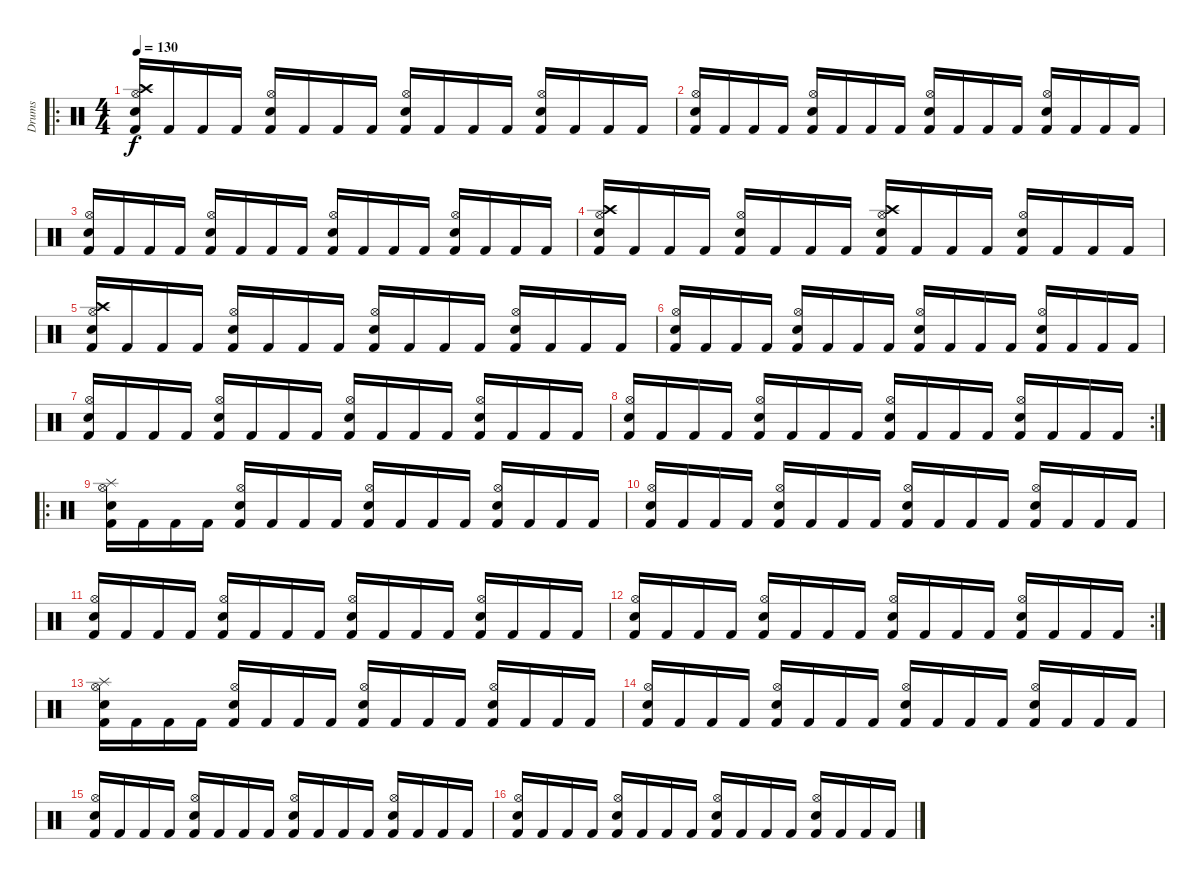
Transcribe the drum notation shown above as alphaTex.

\track ("Drums" "Drums") {instrument percussion}
\staff {score}
\articulation defaults
\ro
\ts (4 4)
\tempo 130
\clef neutral
\ks c
("Snare (hit) 2" "Crash high (hit)" "Hi-Hat (open)" "Kick (hit) 2").16{dy f} "Kick (hit) 2".16 "Kick (hit) 2".16 "Kick (hit) 2".16 ("Hi-Hat (open)" "Snare (hit) 2" "Kick (hit) 2").16 "Kick (hit) 2".16 "Kick (hit) 2".16 "Kick (hit) 2".16 ("Snare (hit) 2" "Hi-Hat (open)" "Kick (hit) 2").16 "Kick (hit) 2".16 "Kick (hit) 2".16 "Kick (hit) 2".16 ("Hi-Hat (open)" "Snare (hit) 2" "Kick (hit) 2").16 "Kick (hit) 2".16 "Kick (hit) 2".16 "Kick (hit) 2".16 |
("Snare (hit) 2" "Hi-Hat (open)" "Kick (hit) 2").16 "Kick (hit) 2".16 "Kick (hit) 2".16 "Kick (hit) 2".16 ("Hi-Hat (open)" "Snare (hit) 2" "Kick (hit) 2").16 "Kick (hit) 2".16 "Kick (hit) 2".16 "Kick (hit) 2".16 ("Snare (hit) 2" "Hi-Hat (open)" "Kick (hit) 2").16 "Kick (hit) 2".16 "Kick (hit) 2".16 "Kick (hit) 2".16 ("Hi-Hat (open)" "Snare (hit) 2" "Kick (hit) 2").16 "Kick (hit) 2".16 "Kick (hit) 2".16 "Kick (hit) 2".16 |
("Kick (hit) 2" "Hi-Hat (open)" "Snare (hit) 2").16 "Kick (hit) 2".16 "Kick (hit) 2".16 "Kick (hit) 2".16 ("Hi-Hat (open)" "Snare (hit) 2" "Kick (hit) 2").16 "Kick (hit) 2".16 "Kick (hit) 2".16 "Kick (hit) 2".16 ("Kick (hit) 2" "Hi-Hat (open)" "Snare (hit) 2").16 "Kick (hit) 2".16 "Kick (hit) 2".16 "Kick (hit) 2".16 ("Hi-Hat (open)" "Snare (hit) 2" "Kick (hit) 2").16 "Kick (hit) 2".16 "Kick (hit) 2".16 "Kick (hit) 2".16 |
("Crash high (hit)" "Kick (hit) 2" "Hi-Hat (open)" "Snare (hit) 2").16 "Kick (hit) 2".16 "Kick (hit) 2".16 "Kick (hit) 2".16 ("Hi-Hat (open)" "Snare (hit) 2" "Kick (hit) 2").16 "Kick (hit) 2".16 "Kick (hit) 2".16 "Kick (hit) 2".16 ("Crash high (hit)" "Kick (hit) 2" "Hi-Hat (open)" "Snare (hit) 2").16 "Kick (hit) 2".16 "Kick (hit) 2".16 "Kick (hit) 2".16 ("Hi-Hat (open)" "Snare (hit) 2" "Kick (hit) 2").16 "Kick (hit) 2".16 "Kick (hit) 2".16 "Kick (hit) 2".16 |
("Crash high (hit)" "Kick (hit) 2" "Hi-Hat (open)" "Snare (hit) 2").16 "Kick (hit) 2".16 "Kick (hit) 2".16 "Kick (hit) 2".16 ("Hi-Hat (open)" "Snare (hit) 2" "Kick (hit) 2").16 "Kick (hit) 2".16 "Kick (hit) 2".16 "Kick (hit) 2".16 ("Kick (hit) 2" "Hi-Hat (open)" "Snare (hit) 2").16 "Kick (hit) 2".16 "Kick (hit) 2".16 "Kick (hit) 2".16 ("Hi-Hat (open)" "Snare (hit) 2" "Kick (hit) 2").16 "Kick (hit) 2".16 "Kick (hit) 2".16 "Kick (hit) 2".16 |
("Kick (hit) 2" "Hi-Hat (open)" "Snare (hit) 2").16 "Kick (hit) 2".16 "Kick (hit) 2".16 "Kick (hit) 2".16 ("Hi-Hat (open)" "Snare (hit) 2" "Kick (hit) 2").16 "Kick (hit) 2".16 "Kick (hit) 2".16 "Kick (hit) 2".16 ("Kick (hit) 2" "Hi-Hat (open)" "Snare (hit) 2").16 "Kick (hit) 2".16 "Kick (hit) 2".16 "Kick (hit) 2".16 ("Hi-Hat (open)" "Snare (hit) 2" "Kick (hit) 2").16 "Kick (hit) 2".16 "Kick (hit) 2".16 "Kick (hit) 2".16 |
("Kick (hit) 2" "Hi-Hat (open)" "Snare (hit) 2").16 "Kick (hit) 2".16 "Kick (hit) 2".16 "Kick (hit) 2".16 ("Hi-Hat (open)" "Snare (hit) 2" "Kick (hit) 2").16 "Kick (hit) 2".16 "Kick (hit) 2".16 "Kick (hit) 2".16 ("Kick (hit) 2" "Hi-Hat (open)" "Snare (hit) 2").16 "Kick (hit) 2".16 "Kick (hit) 2".16 "Kick (hit) 2".16 ("Hi-Hat (open)" "Snare (hit) 2" "Kick (hit) 2").16 "Kick (hit) 2".16 "Kick (hit) 2".16 "Kick (hit) 2".16 |
\rc 2
("Kick (hit) 2" "Hi-Hat (open)" "Snare (hit) 2").16 "Kick (hit) 2".16 "Kick (hit) 2".16 "Kick (hit) 2".16 ("Hi-Hat (open)" "Snare (hit) 2" "Kick (hit) 2").16 "Kick (hit) 2".16 "Kick (hit) 2".16 "Kick (hit) 2".16 ("Kick (hit) 2" "Hi-Hat (open)" "Snare (hit) 2").16 "Kick (hit) 2".16 "Kick (hit) 2".16 "Kick (hit) 2".16 ("Hi-Hat (open)" "Snare (hit) 2" "Kick (hit) 2").16 "Kick (hit) 2".16 "Kick (hit) 2".16 "Kick (hit) 2".16 |
\ro
("Splash (hit)" "Kick (hit) 2" "Hi-Hat (open)" "Snare (hit) 2").16 "Kick (hit) 2".16 "Kick (hit) 2".16 "Kick (hit) 2".16 ("Hi-Hat (open)" "Snare (hit) 2" "Kick (hit) 2").16 "Kick (hit) 2".16 "Kick (hit) 2".16 "Kick (hit) 2".16 ("Kick (hit) 2" "Hi-Hat (open)" "Snare (hit) 2").16 "Kick (hit) 2".16 "Kick (hit) 2".16 "Kick (hit) 2".16 ("Hi-Hat (open)" "Snare (hit) 2" "Kick (hit) 2").16 "Kick (hit) 2".16 "Kick (hit) 2".16 "Kick (hit) 2".16 |
("Kick (hit) 2" "Hi-Hat (open)" "Snare (hit) 2").16 "Kick (hit) 2".16 "Kick (hit) 2".16 "Kick (hit) 2".16 ("Hi-Hat (open)" "Snare (hit) 2" "Kick (hit) 2").16 "Kick (hit) 2".16 "Kick (hit) 2".16 "Kick (hit) 2".16 ("Kick (hit) 2" "Hi-Hat (open)" "Snare (hit) 2").16 "Kick (hit) 2".16 "Kick (hit) 2".16 "Kick (hit) 2".16 ("Hi-Hat (open)" "Snare (hit) 2" "Kick (hit) 2").16 "Kick (hit) 2".16 "Kick (hit) 2".16 "Kick (hit) 2".16 |
("Kick (hit) 2" "Hi-Hat (open)" "Snare (hit) 2").16 "Kick (hit) 2".16 "Kick (hit) 2".16 "Kick (hit) 2".16 ("Hi-Hat (open)" "Snare (hit) 2" "Kick (hit) 2").16 "Kick (hit) 2".16 "Kick (hit) 2".16 "Kick (hit) 2".16 ("Kick (hit) 2" "Hi-Hat (open)" "Snare (hit) 2").16 "Kick (hit) 2".16 "Kick (hit) 2".16 "Kick (hit) 2".16 ("Hi-Hat (open)" "Snare (hit) 2" "Kick (hit) 2").16 "Kick (hit) 2".16 "Kick (hit) 2".16 "Kick (hit) 2".16 |
\rc 2
("Kick (hit) 2" "Hi-Hat (open)" "Snare (hit) 2").16 "Kick (hit) 2".16 "Kick (hit) 2".16 "Kick (hit) 2".16 ("Hi-Hat (open)" "Snare (hit) 2" "Kick (hit) 2").16 "Kick (hit) 2".16 "Kick (hit) 2".16 "Kick (hit) 2".16 ("Kick (hit) 2" "Hi-Hat (open)" "Snare (hit) 2").16 "Kick (hit) 2".16 "Kick (hit) 2".16 "Kick (hit) 2".16 ("Hi-Hat (open)" "Snare (hit) 2" "Kick (hit) 2").16 "Kick (hit) 2".16 "Kick (hit) 2".16 "Kick (hit) 2".16 |
("Snare (hit) 2" "Splash (hit)" "Hi-Hat (open)" "Kick (hit) 2").16 "Kick (hit) 2".16 "Kick (hit) 2".16 "Kick (hit) 2".16 ("Hi-Hat (open)" "Snare (hit) 2" "Kick (hit) 2").16 "Kick (hit) 2".16 "Kick (hit) 2".16 "Kick (hit) 2".16 ("Snare (hit) 2" "Hi-Hat (open)" "Kick (hit) 2").16 "Kick (hit) 2".16 "Kick (hit) 2".16 "Kick (hit) 2".16 ("Hi-Hat (open)" "Snare (hit) 2" "Kick (hit) 2").16 "Kick (hit) 2".16 "Kick (hit) 2".16 "Kick (hit) 2".16 |
("Kick (hit) 2" "Hi-Hat (open)" "Snare (hit) 2").16 "Kick (hit) 2".16 "Kick (hit) 2".16 "Kick (hit) 2".16 ("Hi-Hat (open)" "Snare (hit) 2" "Kick (hit) 2").16 "Kick (hit) 2".16 "Kick (hit) 2".16 "Kick (hit) 2".16 ("Kick (hit) 2" "Hi-Hat (open)" "Snare (hit) 2").16 "Kick (hit) 2".16 "Kick (hit) 2".16 "Kick (hit) 2".16 ("Hi-Hat (open)" "Snare (hit) 2" "Kick (hit) 2").16 "Kick (hit) 2".16 "Kick (hit) 2".16 "Kick (hit) 2".16 |
("Kick (hit) 2" "Hi-Hat (open)" "Snare (hit) 2").16 "Kick (hit) 2".16 "Kick (hit) 2".16 "Kick (hit) 2".16 ("Hi-Hat (open)" "Snare (hit) 2" "Kick (hit) 2").16 "Kick (hit) 2".16 "Kick (hit) 2".16 "Kick (hit) 2".16 ("Kick (hit) 2" "Hi-Hat (open)" "Snare (hit) 2").16 "Kick (hit) 2".16 "Kick (hit) 2".16 "Kick (hit) 2".16 ("Hi-Hat (open)" "Snare (hit) 2" "Kick (hit) 2").16 "Kick (hit) 2".16 "Kick (hit) 2".16 "Kick (hit) 2".16 |
("Kick (hit) 2" "Hi-Hat (open)" "Snare (hit) 2").16 "Kick (hit) 2".16 "Kick (hit) 2".16 "Kick (hit) 2".16 ("Hi-Hat (open)" "Snare (hit) 2" "Kick (hit) 2").16 "Kick (hit) 2".16 "Kick (hit) 2".16 "Kick (hit) 2".16 ("Kick (hit) 2" "Hi-Hat (open)" "Snare (hit) 2").16 "Kick (hit) 2".16 "Kick (hit) 2".16 "Kick (hit) 2".16 ("Hi-Hat (open)" "Snare (hit) 2" "Kick (hit) 2").16 "Kick (hit) 2".16 "Kick (hit) 2".16 "Kick (hit) 2".16
